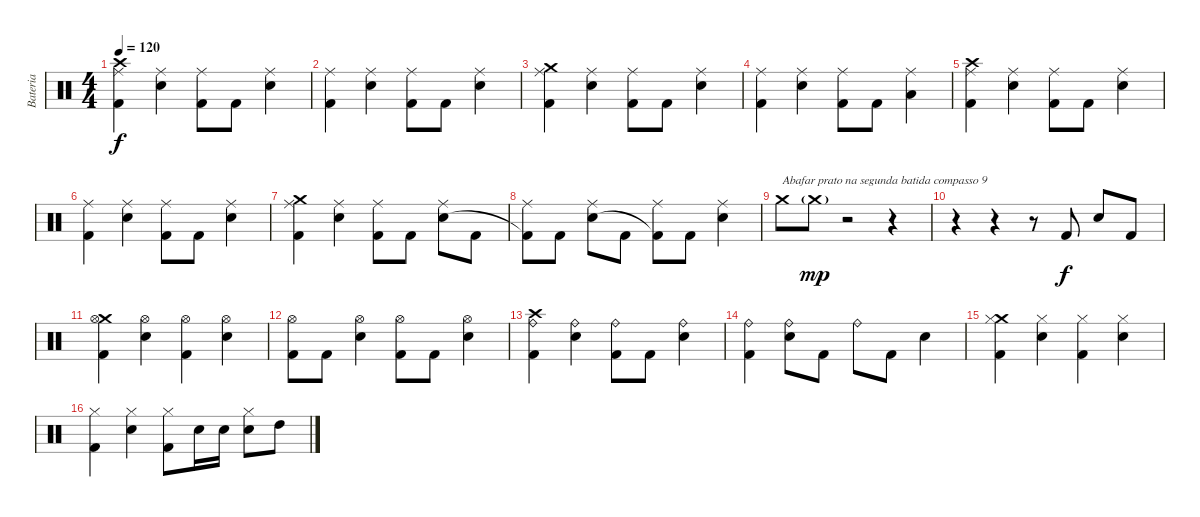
\track ("Bateria" "Bateria") {instrument percussion}
\staff {score}
\articulation defaults
\ts (4 4)
\tempo 120
\clef neutral
\ks c
("Crash high (hit)" "Ride (middle)" "Kick (hit) 2").4{dy f} ("Ride (middle)" "Electric Snare (hit)").4 ("Ride (middle)" "Kick (hit) 2").8 "Kick (hit) 2".8 ("Ride (middle)" "Electric Snare (hit)").4 |
("Ride (middle)" "Kick (hit) 2").4 ("Ride (middle)" "Electric Snare (hit)").4 ("Ride (middle)" "Kick (hit) 2").8 "Kick (hit) 2".8 ("Ride (middle)" "Electric Snare (hit)").4 |
("Crash medium (hit)" "Ride (middle)" "Kick (hit) 2").4 ("Ride (middle)" "Electric Snare (hit)").4 ("Ride (middle)" "Kick (hit) 2").8 "Kick (hit) 2".8 ("Ride (middle)" "Electric Snare (hit)").4 |
("Ride (middle)" "Kick (hit) 2").4 ("Ride (middle)" "Electric Snare (hit)").4 ("Ride (middle)" "Kick (hit) 2").8 "Kick (hit) 2".8 ("Low Floor Tom (hit)" "Ride (middle)").4 |
("Crash high (hit)" "Ride (middle)" "Kick (hit) 2").4 ("Ride (middle)" "Electric Snare (hit)").4 ("Ride (middle)" "Kick (hit) 2").8 "Kick (hit) 2".8 ("Ride (middle)" "Electric Snare (hit)").4 |
("Ride (middle)" "Kick (hit) 2").4 ("Ride (middle)" "Electric Snare (hit)").4 ("Ride (middle)" "Kick (hit) 2").8 "Kick (hit) 2".8 ("Ride (middle)" "Electric Snare (hit)").4 |
("Crash medium (hit)" "Ride (middle)" "Kick (hit) 2").4 ("Ride (middle)" "Electric Snare (hit)").4 ("Ride (middle)" "Kick (hit) 2").8 "Kick (hit) 2".8 ("Ride (middle)" "Electric Snare (hit)").8 "Kick (hit) 2".8 |
("Ride (middle)" "Kick (hit) 2"{t}).8 "Kick (hit) 2".8 ("Ride (middle)" "Electric Snare (hit)").8 "Kick (hit) 2".8 ("Ride (middle)" "Kick (hit) 2"{t}).8 "Kick (hit) 2".8 ("Ride (middle)" "Electric Snare (hit)").4 |
"Crash medium (hit)".8{txt "Abafar prato na segunda batida compasso 9"} "Crash medium (hit)"{g pm}.8{dy mp} r.2 r.4 |
r.4 r.4 r.8 "Kick (hit) 2".8{dy f} "Electric Snare (hit)".8 "Kick (hit) 2".8 |
("Crash medium (hit)" "Hi-Hat (open)" "Kick (hit) 2").4 ("Hi-Hat (open)" "Electric Snare (hit)").4 ("Hi-Hat (open)" "Kick (hit) 2").4 ("Hi-Hat (open)" "Electric Snare (hit)").4 |
("Hi-Hat (open)" "Kick (hit) 2").8 "Kick (hit) 2".8 ("Hi-Hat (open)" "Electric Snare (hit)").4 ("Hi-Hat (open)" "Kick (hit) 2").8 "Kick (hit) 2".8 ("Hi-Hat (open)" "Electric Snare (hit)").4 |
("Crash high (hit)" "Ride (bell)" "Kick (hit) 2").4 ("Ride (bell)" "Electric Snare (hit)").4 ("Ride (bell)" "Kick (hit) 2").8 "Kick (hit) 2".8 ("Ride (bell)" "Electric Snare (hit)").4 |
("Ride (bell)" "Kick (hit) 2").4 ("Ride (bell)" "Electric Snare (hit)").8 "Kick (hit) 2".8 "Ride (bell)".8 "Kick (hit) 2".8 "Electric Snare (hit)".4 |
("Crash medium (hit)" "Hi-Hat (closed)" "Kick (hit) 2").4 ("Hi-Hat (closed)" "Electric Snare (hit)").4 ("Hi-Hat (closed)" "Kick (hit) 2").4 ("Hi-Hat (closed)" "Electric Snare (hit)").4 |
("Hi-Hat (closed)" "Kick (hit) 2").4 ("Hi-Hat (closed)" "Electric Snare (hit)").4 ("Hi-Hat (closed)" "Kick (hit) 2").8 "Electric Snare (hit)".16 "Electric Snare (hit)".16 ("Hi-Hat (closed)" "Electric Snare (hit)").8 "High Tom (hit)".8
